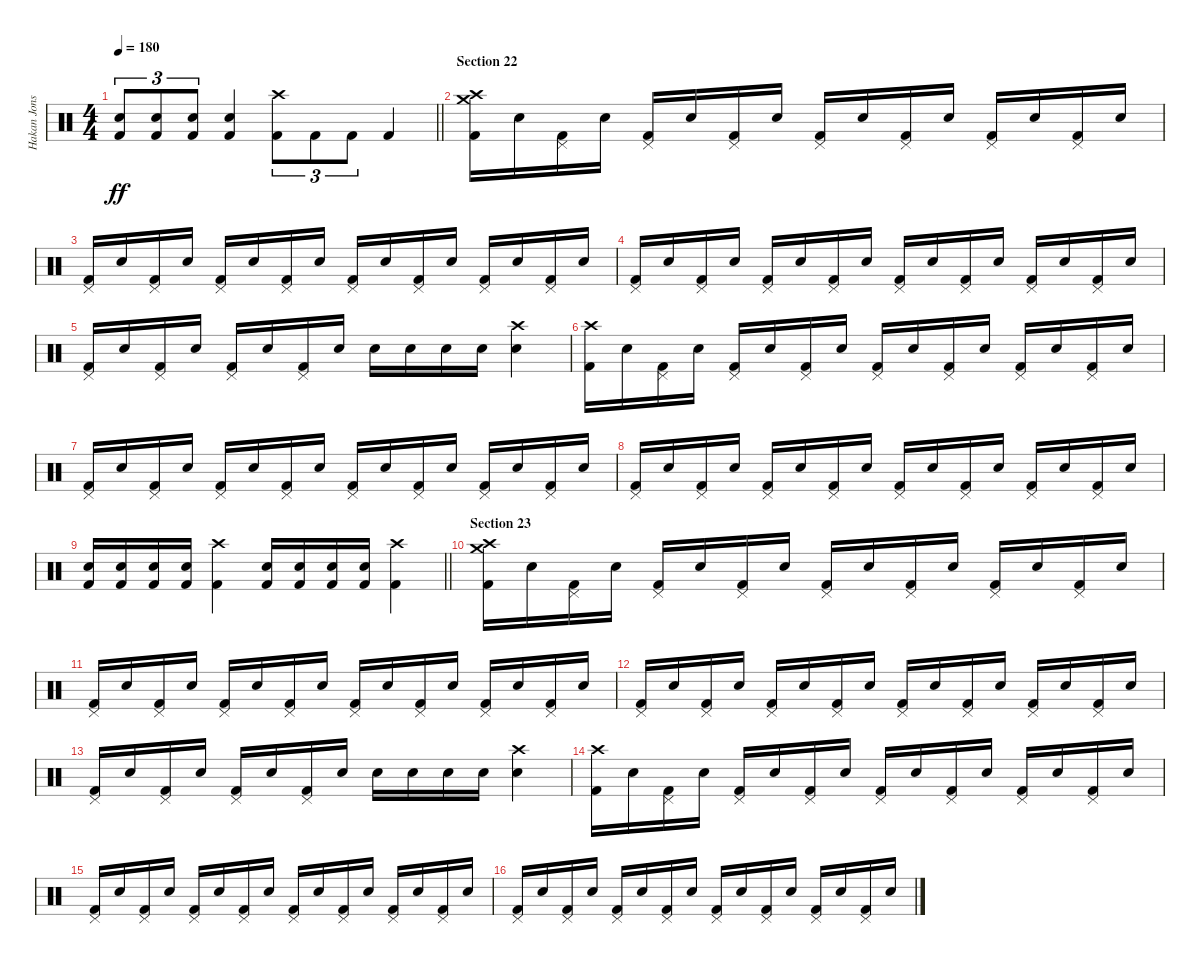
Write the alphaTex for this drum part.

\track ("Hakan Jonsson" "Hakan Jons") {instrument percussion}
\staff {score}
\articulation defaults
\ts (4 4)
\tempo 180
\clef neutral
\barLineRight lightlight
\ks c
("Electric Snare (hit)" "Kick (hit) 2").8{tu (3 2) dy ff} ("Electric Snare (hit)" "Kick (hit) 2").8{tu (3 2)} ("Electric Snare (hit)" "Kick (hit) 2").8{tu (3 2)} ("Electric Snare (hit)" "Kick (hit) 2").4 ("Crash high (hit)" "Kick (hit) 2").8{tu (3 2)} "Kick (hit) 2".8{tu (3 2)} "Kick (hit) 2".8{tu (3 2)} "Kick (hit) 2".4 |
\section ("" "Section 22")
("Crash high (hit)" "Crash medium (hit)" "Kick (hit) 2").16 "Electric Snare (hit)".16 ("Pedal Hi-Hat (hit)" "Kick (hit) 2").16 "Electric Snare (hit)".16 ("Pedal Hi-Hat (hit)" "Kick (hit) 2").16 "Electric Snare (hit)".16 ("Pedal Hi-Hat (hit)" "Kick (hit) 2").16 "Electric Snare (hit)".16 ("Pedal Hi-Hat (hit)" "Kick (hit) 2").16 "Electric Snare (hit)".16 ("Pedal Hi-Hat (hit)" "Kick (hit) 2").16 "Electric Snare (hit)".16 ("Pedal Hi-Hat (hit)" "Kick (hit) 2").16 "Electric Snare (hit)".16 ("Pedal Hi-Hat (hit)" "Kick (hit) 2").16 "Electric Snare (hit)".16 |
("Pedal Hi-Hat (hit)" "Kick (hit) 2").16 "Electric Snare (hit)".16 ("Pedal Hi-Hat (hit)" "Kick (hit) 2").16 "Electric Snare (hit)".16 ("Pedal Hi-Hat (hit)" "Kick (hit) 2").16 "Electric Snare (hit)".16 ("Pedal Hi-Hat (hit)" "Kick (hit) 2").16 "Electric Snare (hit)".16 ("Pedal Hi-Hat (hit)" "Kick (hit) 2").16 "Electric Snare (hit)".16 ("Pedal Hi-Hat (hit)" "Kick (hit) 2").16 "Electric Snare (hit)".16 ("Pedal Hi-Hat (hit)" "Kick (hit) 2").16 "Electric Snare (hit)".16 ("Pedal Hi-Hat (hit)" "Kick (hit) 2").16 "Electric Snare (hit)".16 |
("Pedal Hi-Hat (hit)" "Kick (hit) 2").16 "Electric Snare (hit)".16 ("Pedal Hi-Hat (hit)" "Kick (hit) 2").16 "Electric Snare (hit)".16 ("Pedal Hi-Hat (hit)" "Kick (hit) 2").16 "Electric Snare (hit)".16 ("Pedal Hi-Hat (hit)" "Kick (hit) 2").16 "Electric Snare (hit)".16 ("Pedal Hi-Hat (hit)" "Kick (hit) 2").16 "Electric Snare (hit)".16 ("Pedal Hi-Hat (hit)" "Kick (hit) 2").16 "Electric Snare (hit)".16 ("Pedal Hi-Hat (hit)" "Kick (hit) 2").16 "Electric Snare (hit)".16 ("Pedal Hi-Hat (hit)" "Kick (hit) 2").16 "Electric Snare (hit)".16 |
("Pedal Hi-Hat (hit)" "Kick (hit) 2").16 "Electric Snare (hit)".16 ("Pedal Hi-Hat (hit)" "Kick (hit) 2").16 "Electric Snare (hit)".16 ("Pedal Hi-Hat (hit)" "Kick (hit) 2").16 "Electric Snare (hit)".16 ("Pedal Hi-Hat (hit)" "Kick (hit) 2").16 "Electric Snare (hit)".16 "Electric Snare (hit)".16 "Electric Snare (hit)".16 "Electric Snare (hit)".16 "Electric Snare (hit)".16 ("Crash high (hit)" "Electric Snare (hit)").4 |
("Crash high (hit)" "Kick (hit) 2").16 "Electric Snare (hit)".16 ("Pedal Hi-Hat (hit)" "Kick (hit) 2").16 "Electric Snare (hit)".16 ("Pedal Hi-Hat (hit)" "Kick (hit) 2").16 "Electric Snare (hit)".16 ("Pedal Hi-Hat (hit)" "Kick (hit) 2").16 "Electric Snare (hit)".16 ("Pedal Hi-Hat (hit)" "Kick (hit) 2").16 "Electric Snare (hit)".16 ("Pedal Hi-Hat (hit)" "Kick (hit) 2").16 "Electric Snare (hit)".16 ("Pedal Hi-Hat (hit)" "Kick (hit) 2").16 "Electric Snare (hit)".16 ("Pedal Hi-Hat (hit)" "Kick (hit) 2").16 "Electric Snare (hit)".16 |
("Pedal Hi-Hat (hit)" "Kick (hit) 2").16 "Electric Snare (hit)".16 ("Pedal Hi-Hat (hit)" "Kick (hit) 2").16 "Electric Snare (hit)".16 ("Pedal Hi-Hat (hit)" "Kick (hit) 2").16 "Electric Snare (hit)".16 ("Pedal Hi-Hat (hit)" "Kick (hit) 2").16 "Electric Snare (hit)".16 ("Pedal Hi-Hat (hit)" "Kick (hit) 2").16 "Electric Snare (hit)".16 ("Pedal Hi-Hat (hit)" "Kick (hit) 2").16 "Electric Snare (hit)".16 ("Pedal Hi-Hat (hit)" "Kick (hit) 2").16 "Electric Snare (hit)".16 ("Pedal Hi-Hat (hit)" "Kick (hit) 2").16 "Electric Snare (hit)".16 |
("Pedal Hi-Hat (hit)" "Kick (hit) 2").16 "Electric Snare (hit)".16 ("Pedal Hi-Hat (hit)" "Kick (hit) 2").16 "Electric Snare (hit)".16 ("Pedal Hi-Hat (hit)" "Kick (hit) 2").16 "Electric Snare (hit)".16 ("Pedal Hi-Hat (hit)" "Kick (hit) 2").16 "Electric Snare (hit)".16 ("Pedal Hi-Hat (hit)" "Kick (hit) 2").16 "Electric Snare (hit)".16 ("Pedal Hi-Hat (hit)" "Kick (hit) 2").16 "Electric Snare (hit)".16 ("Pedal Hi-Hat (hit)" "Kick (hit) 2").16 "Electric Snare (hit)".16 ("Pedal Hi-Hat (hit)" "Kick (hit) 2").16 "Electric Snare (hit)".16 |
\barLineRight lightlight
("Electric Snare (hit)" "Kick (hit) 2").16 ("Electric Snare (hit)" "Kick (hit) 2").16 ("Electric Snare (hit)" "Kick (hit) 2").16 ("Electric Snare (hit)" "Kick (hit) 2").16 ("Crash high (hit)" "Kick (hit) 2").4 ("Electric Snare (hit)" "Kick (hit) 2").16 ("Electric Snare (hit)" "Kick (hit) 2").16 ("Electric Snare (hit)" "Kick (hit) 2").16 ("Electric Snare (hit)" "Kick (hit) 2").16 ("Crash high (hit)" "Kick (hit) 2").4 |
\section ("" "Section 23")
("Crash high (hit)" "Crash medium (hit)" "Kick (hit) 2").16 "Electric Snare (hit)".16 ("Pedal Hi-Hat (hit)" "Kick (hit) 2").16 "Electric Snare (hit)".16 ("Pedal Hi-Hat (hit)" "Kick (hit) 2").16 "Electric Snare (hit)".16 ("Pedal Hi-Hat (hit)" "Kick (hit) 2").16 "Electric Snare (hit)".16 ("Pedal Hi-Hat (hit)" "Kick (hit) 2").16 "Electric Snare (hit)".16 ("Pedal Hi-Hat (hit)" "Kick (hit) 2").16 "Electric Snare (hit)".16 ("Pedal Hi-Hat (hit)" "Kick (hit) 2").16 "Electric Snare (hit)".16 ("Pedal Hi-Hat (hit)" "Kick (hit) 2").16 "Electric Snare (hit)".16 |
("Pedal Hi-Hat (hit)" "Kick (hit) 2").16 "Electric Snare (hit)".16 ("Pedal Hi-Hat (hit)" "Kick (hit) 2").16 "Electric Snare (hit)".16 ("Pedal Hi-Hat (hit)" "Kick (hit) 2").16 "Electric Snare (hit)".16 ("Pedal Hi-Hat (hit)" "Kick (hit) 2").16 "Electric Snare (hit)".16 ("Pedal Hi-Hat (hit)" "Kick (hit) 2").16 "Electric Snare (hit)".16 ("Pedal Hi-Hat (hit)" "Kick (hit) 2").16 "Electric Snare (hit)".16 ("Pedal Hi-Hat (hit)" "Kick (hit) 2").16 "Electric Snare (hit)".16 ("Pedal Hi-Hat (hit)" "Kick (hit) 2").16 "Electric Snare (hit)".16 |
("Pedal Hi-Hat (hit)" "Kick (hit) 2").16 "Electric Snare (hit)".16 ("Pedal Hi-Hat (hit)" "Kick (hit) 2").16 "Electric Snare (hit)".16 ("Pedal Hi-Hat (hit)" "Kick (hit) 2").16 "Electric Snare (hit)".16 ("Pedal Hi-Hat (hit)" "Kick (hit) 2").16 "Electric Snare (hit)".16 ("Pedal Hi-Hat (hit)" "Kick (hit) 2").16 "Electric Snare (hit)".16 ("Pedal Hi-Hat (hit)" "Kick (hit) 2").16 "Electric Snare (hit)".16 ("Pedal Hi-Hat (hit)" "Kick (hit) 2").16 "Electric Snare (hit)".16 ("Pedal Hi-Hat (hit)" "Kick (hit) 2").16 "Electric Snare (hit)".16 |
("Pedal Hi-Hat (hit)" "Kick (hit) 2").16 "Electric Snare (hit)".16 ("Pedal Hi-Hat (hit)" "Kick (hit) 2").16 "Electric Snare (hit)".16 ("Pedal Hi-Hat (hit)" "Kick (hit) 2").16 "Electric Snare (hit)".16 ("Pedal Hi-Hat (hit)" "Kick (hit) 2").16 "Electric Snare (hit)".16 "Electric Snare (hit)".16 "Electric Snare (hit)".16 "Electric Snare (hit)".16 "Electric Snare (hit)".16 ("Crash high (hit)" "Electric Snare (hit)").4 |
("Crash high (hit)" "Kick (hit) 2").16 "Electric Snare (hit)".16 ("Pedal Hi-Hat (hit)" "Kick (hit) 2").16 "Electric Snare (hit)".16 ("Pedal Hi-Hat (hit)" "Kick (hit) 2").16 "Electric Snare (hit)".16 ("Pedal Hi-Hat (hit)" "Kick (hit) 2").16 "Electric Snare (hit)".16 ("Pedal Hi-Hat (hit)" "Kick (hit) 2").16 "Electric Snare (hit)".16 ("Pedal Hi-Hat (hit)" "Kick (hit) 2").16 "Electric Snare (hit)".16 ("Pedal Hi-Hat (hit)" "Kick (hit) 2").16 "Electric Snare (hit)".16 ("Pedal Hi-Hat (hit)" "Kick (hit) 2").16 "Electric Snare (hit)".16 |
("Pedal Hi-Hat (hit)" "Kick (hit) 2").16 "Electric Snare (hit)".16 ("Pedal Hi-Hat (hit)" "Kick (hit) 2").16 "Electric Snare (hit)".16 ("Pedal Hi-Hat (hit)" "Kick (hit) 2").16 "Electric Snare (hit)".16 ("Pedal Hi-Hat (hit)" "Kick (hit) 2").16 "Electric Snare (hit)".16 ("Pedal Hi-Hat (hit)" "Kick (hit) 2").16 "Electric Snare (hit)".16 ("Pedal Hi-Hat (hit)" "Kick (hit) 2").16 "Electric Snare (hit)".16 ("Pedal Hi-Hat (hit)" "Kick (hit) 2").16 "Electric Snare (hit)".16 ("Pedal Hi-Hat (hit)" "Kick (hit) 2").16 "Electric Snare (hit)".16 |
("Pedal Hi-Hat (hit)" "Kick (hit) 2").16 "Electric Snare (hit)".16 ("Pedal Hi-Hat (hit)" "Kick (hit) 2").16 "Electric Snare (hit)".16 ("Pedal Hi-Hat (hit)" "Kick (hit) 2").16 "Electric Snare (hit)".16 ("Pedal Hi-Hat (hit)" "Kick (hit) 2").16 "Electric Snare (hit)".16 ("Pedal Hi-Hat (hit)" "Kick (hit) 2").16 "Electric Snare (hit)".16 ("Pedal Hi-Hat (hit)" "Kick (hit) 2").16 "Electric Snare (hit)".16 ("Pedal Hi-Hat (hit)" "Kick (hit) 2").16 "Electric Snare (hit)".16 ("Pedal Hi-Hat (hit)" "Kick (hit) 2").16 "Electric Snare (hit)".16
